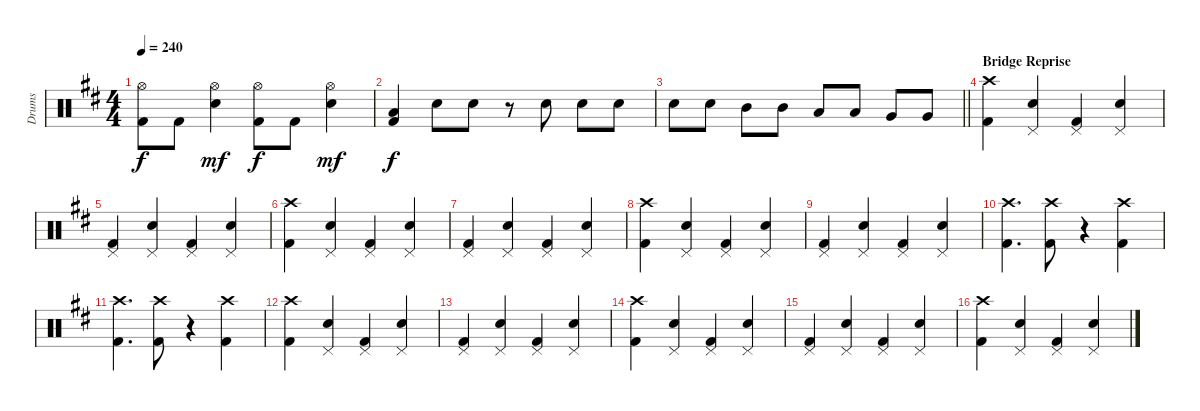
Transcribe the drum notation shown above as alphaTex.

\track ("Drums" "Drums") {instrument percussion}
\staff {score}
\articulation defaults
\ts (4 4)
\tempo 240
\clef neutral
\ks d
("Hi-Hat (open)" "Kick (hit) 2").8{dy f} "Kick (hit) 2".8 ("Hi-Hat (open)" "Electric Snare (hit)").4{dy mf} ("Hi-Hat (open)" "Kick (hit) 2").8{dy f} "Kick (hit) 2".8 ("Hi-Hat (open)" "Electric Snare (hit)").4{dy mf} |
("Low Tom (hit)" "Kick (hit) 2").4{dy f} "Electric Snare (hit)".8 "Electric Snare (hit)".8 r.8 "Electric Snare (hit)".8 "Electric Snare (hit)".8 "Electric Snare (hit)".8 |
\barLineRight lightlight "Electric Snare (hit)".8 "Electric Snare (hit)".8 "Mid Tom (hit)".8 "Mid Tom (hit)".8 "Low Tom (hit)".8 "Low Tom (hit)".8 "Very Low Tom (hit)".8 "Very Low Tom (hit)".8
|
\section ("" "Bridge Reprise")
("Crash high (hit)" "Kick (hit) 2").4 ("Pedal Hi-Hat (hit)" "Electric Snare (hit)").4 ("Pedal Hi-Hat (hit)" "Kick (hit) 2").4 ("Pedal Hi-Hat (hit)" "Electric Snare (hit)").4 |
("Pedal Hi-Hat (hit)" "Kick (hit) 2").4 ("Pedal Hi-Hat (hit)" "Electric Snare (hit)").4 ("Pedal Hi-Hat (hit)" "Kick (hit) 2").4 ("Pedal Hi-Hat (hit)" "Electric Snare (hit)").4 |
("Crash high (hit)" "Kick (hit) 2").4 ("Pedal Hi-Hat (hit)" "Electric Snare (hit)").4 ("Pedal Hi-Hat (hit)" "Kick (hit) 2").4 ("Pedal Hi-Hat (hit)" "Electric Snare (hit)").4 |
("Pedal Hi-Hat (hit)" "Kick (hit) 2").4 ("Pedal Hi-Hat (hit)" "Electric Snare (hit)").4 ("Pedal Hi-Hat (hit)" "Kick (hit) 2").4 ("Pedal Hi-Hat (hit)" "Electric Snare (hit)").4 |
("Crash high (hit)" "Kick (hit) 2").4 ("Pedal Hi-Hat (hit)" "Electric Snare (hit)").4 ("Pedal Hi-Hat (hit)" "Kick (hit) 2").4 ("Pedal Hi-Hat (hit)" "Electric Snare (hit)").4 |
("Pedal Hi-Hat (hit)" "Kick (hit) 2").4 ("Pedal Hi-Hat (hit)" "Electric Snare (hit)").4 ("Pedal Hi-Hat (hit)" "Kick (hit) 2").4 ("Pedal Hi-Hat (hit)" "Electric Snare (hit)").4 |
("Crash high (hit)" "Kick (hit) 2").4{d} ("Crash high (hit)" "Kick (hit) 2").8 r.4 ("Crash high (hit)" "Kick (hit) 2").4 |
("Crash high (hit)" "Kick (hit) 2").4{d} ("Crash high (hit)" "Kick (hit) 2").8 r.4 ("Crash high (hit)" "Kick (hit) 2").4 |
("Crash high (hit)" "Kick (hit) 2").4 ("Pedal Hi-Hat (hit)" "Electric Snare (hit)").4 ("Pedal Hi-Hat (hit)" "Kick (hit) 2").4 ("Pedal Hi-Hat (hit)" "Electric Snare (hit)").4 |
("Pedal Hi-Hat (hit)" "Kick (hit) 2").4 ("Pedal Hi-Hat (hit)" "Electric Snare (hit)").4 ("Pedal Hi-Hat (hit)" "Kick (hit) 2").4 ("Pedal Hi-Hat (hit)" "Electric Snare (hit)").4 |
("Crash high (hit)" "Kick (hit) 2").4 ("Pedal Hi-Hat (hit)" "Electric Snare (hit)").4 ("Pedal Hi-Hat (hit)" "Kick (hit) 2").4 ("Pedal Hi-Hat (hit)" "Electric Snare (hit)").4 |
("Pedal Hi-Hat (hit)" "Kick (hit) 2").4 ("Pedal Hi-Hat (hit)" "Electric Snare (hit)").4 ("Pedal Hi-Hat (hit)" "Kick (hit) 2").4 ("Pedal Hi-Hat (hit)" "Electric Snare (hit)").4 |
("Crash high (hit)" "Kick (hit) 2").4 ("Pedal Hi-Hat (hit)" "Electric Snare (hit)").4 ("Pedal Hi-Hat (hit)" "Kick (hit) 2").4 ("Pedal Hi-Hat (hit)" "Electric Snare (hit)").4
